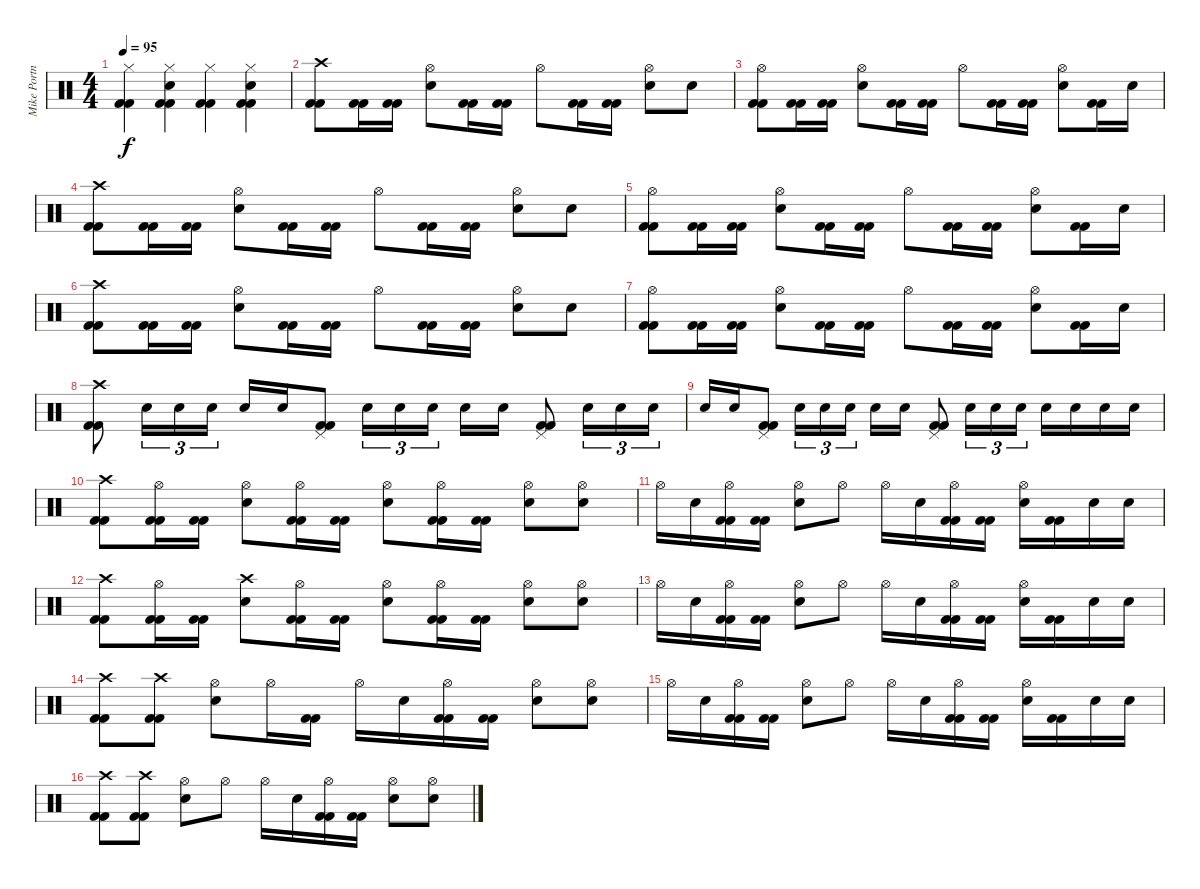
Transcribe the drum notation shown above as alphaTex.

\track ("Mike Portnoy" "Mike Portn") {instrument percussion}
\staff {score}
\articulation defaults
\ts (4 4)
\tempo 95
\clef neutral
\ks c
("Hi-Hat (closed)" "Kick (hit) 2" "Kick (hit) 2").4{dy f} ("Hi-Hat (closed)" "Snare (hit) 2" "Kick (hit) 2" "Kick (hit) 2").4 ("Hi-Hat (closed)" "Kick (hit) 2" "Kick (hit) 2").4 ("Hi-Hat (closed)" "Snare (hit) 2" "Kick (hit) 2" "Kick (hit) 2").4 |
("Crash high (hit)" "Kick (hit) 2" "Kick (hit) 2").8 ("Kick (hit) 2" "Kick (hit) 2").16 ("Kick (hit) 2" "Kick (hit) 2").16 ("Hi-Hat (open)" "Snare (hit) 2").8 ("Kick (hit) 2" "Kick (hit) 2").16 ("Kick (hit) 2" "Kick (hit) 2").16 "Hi-Hat (open)".8 ("Kick (hit) 2" "Kick (hit) 2").16 ("Kick (hit) 2" "Kick (hit) 2").16 ("Hi-Hat (open)" "Snare (hit) 2").8 "Snare (hit) 2".8 |
("Hi-Hat (open)" "Kick (hit) 2" "Kick (hit) 2").8 ("Kick (hit) 2" "Kick (hit) 2").16 ("Kick (hit) 2" "Kick (hit) 2").16 ("Hi-Hat (open)" "Snare (hit) 2").8 ("Kick (hit) 2" "Kick (hit) 2").16 ("Kick (hit) 2" "Kick (hit) 2").16 "Hi-Hat (open)".8 ("Kick (hit) 2" "Kick (hit) 2").16 ("Kick (hit) 2" "Kick (hit) 2").16 ("Hi-Hat (open)" "Snare (hit) 2").8 ("Kick (hit) 2" "Kick (hit) 2").16 "Snare (hit) 2".16 |
("Crash high (hit)" "Kick (hit) 2" "Kick (hit) 2").8 ("Kick (hit) 2" "Kick (hit) 2").16 ("Kick (hit) 2" "Kick (hit) 2").16 ("Hi-Hat (open)" "Snare (hit) 2").8 ("Kick (hit) 2" "Kick (hit) 2").16 ("Kick (hit) 2" "Kick (hit) 2").16 "Hi-Hat (open)".8 ("Kick (hit) 2" "Kick (hit) 2").16 ("Kick (hit) 2" "Kick (hit) 2").16 ("Hi-Hat (open)" "Snare (hit) 2").8 "Snare (hit) 2".8 |
("Hi-Hat (open)" "Kick (hit) 2" "Kick (hit) 2").8 ("Kick (hit) 2" "Kick (hit) 2").16 ("Kick (hit) 2" "Kick (hit) 2").16 ("Hi-Hat (open)" "Snare (hit) 2").8 ("Kick (hit) 2" "Kick (hit) 2").16 ("Kick (hit) 2" "Kick (hit) 2").16 "Hi-Hat (open)".8 ("Kick (hit) 2" "Kick (hit) 2").16 ("Kick (hit) 2" "Kick (hit) 2").16 ("Hi-Hat (open)" "Snare (hit) 2").8 ("Kick (hit) 2" "Kick (hit) 2").16 "Snare (hit) 2".16 |
("Crash high (hit)" "Kick (hit) 2" "Kick (hit) 2").8 ("Kick (hit) 2" "Kick (hit) 2").16 ("Kick (hit) 2" "Kick (hit) 2").16 ("Hi-Hat (open)" "Snare (hit) 2").8 ("Kick (hit) 2" "Kick (hit) 2").16 ("Kick (hit) 2" "Kick (hit) 2").16 "Hi-Hat (open)".8 ("Kick (hit) 2" "Kick (hit) 2").16 ("Kick (hit) 2" "Kick (hit) 2").16 ("Hi-Hat (open)" "Snare (hit) 2").8 "Snare (hit) 2".8 |
("Hi-Hat (open)" "Kick (hit) 2" "Kick (hit) 2").8 ("Kick (hit) 2" "Kick (hit) 2").16 ("Kick (hit) 2" "Kick (hit) 2").16 ("Hi-Hat (open)" "Snare (hit) 2").8 ("Kick (hit) 2" "Kick (hit) 2").16 ("Kick (hit) 2" "Kick (hit) 2").16 "Hi-Hat (open)".8 ("Kick (hit) 2" "Kick (hit) 2").16 ("Kick (hit) 2" "Kick (hit) 2").16 ("Hi-Hat (open)" "Snare (hit) 2").8 ("Kick (hit) 2" "Kick (hit) 2").16 "Snare (hit) 2".16 |
("Crash high (hit)" "Kick (hit) 2" "Kick (hit) 2").8 "Snare (hit) 2".16{tu (3 2)} "Snare (hit) 2".16{tu (3 2)} "Snare (hit) 2".16{tu (3 2)} "Snare (hit) 2".16 "Snare (hit) 2".16 ("Pedal Hi-Hat (hit)" "Kick (hit) 2" "Kick (hit) 2").8 "Snare (hit) 2".16{tu (3 2)} "Snare (hit) 2".16{tu (3 2)} "Snare (hit) 2".16{tu (3 2)} "Snare (hit) 2".16 "Snare (hit) 2".16 ("Pedal Hi-Hat (hit)" "Kick (hit) 2" "Kick (hit) 2").8 "Snare (hit) 2".16{tu (3 2)} "Snare (hit) 2".16{tu (3 2)} "Snare (hit) 2".16{tu (3 2)} |
"Snare (hit) 2".16 "Snare (hit) 2".16 ("Pedal Hi-Hat (hit)" "Kick (hit) 2" "Kick (hit) 2").8 "Snare (hit) 2".16{tu (3 2)} "Snare (hit) 2".16{tu (3 2)} "Snare (hit) 2".16{tu (3 2)} "Snare (hit) 2".16 "Snare (hit) 2".16 ("Pedal Hi-Hat (hit)" "Kick (hit) 2" "Kick (hit) 2").8 "Snare (hit) 2".16{tu (3 2)} "Snare (hit) 2".16{tu (3 2)} "Snare (hit) 2".16{tu (3 2)} "Snare (hit) 2".16 "Snare (hit) 2".16 "Snare (hit) 2".16 "Snare (hit) 2".16 |
("Crash high (hit)" "Kick (hit) 2" "Kick (hit) 2").8 ("Hi-Hat (open)" "Kick (hit) 2" "Kick (hit) 2").16 ("Kick (hit) 2" "Kick (hit) 2").16 ("Hi-Hat (open)" "Snare (hit) 2").8 ("Hi-Hat (open)" "Kick (hit) 2" "Kick (hit) 2").16 ("Kick (hit) 2" "Kick (hit) 2").16 ("Hi-Hat (open)" "Snare (hit) 2").8 ("Hi-Hat (open)" "Kick (hit) 2" "Kick (hit) 2").16 ("Kick (hit) 2" "Kick (hit) 2").16 ("Hi-Hat (open)" "Snare (hit) 2").8 ("Hi-Hat (open)" "Snare (hit) 2").8 |
"Hi-Hat (open)".16 "Snare (hit) 2".16 ("Hi-Hat (open)" "Kick (hit) 2" "Kick (hit) 2").16 ("Kick (hit) 2" "Kick (hit) 2").16 ("Hi-Hat (open)" "Snare (hit) 2").8 "Hi-Hat (open)".8 "Hi-Hat (open)".16 "Snare (hit) 2".16 ("Hi-Hat (open)" "Kick (hit) 2" "Kick (hit) 2").16 ("Kick (hit) 2" "Kick (hit) 2").16 ("Hi-Hat (open)" "Snare (hit) 2").16 ("Kick (hit) 2" "Kick (hit) 2").16 "Snare (hit) 2".16 "Snare (hit) 2".16 |
("Crash high (hit)" "Kick (hit) 2" "Kick (hit) 2").8 ("Hi-Hat (open)" "Kick (hit) 2" "Kick (hit) 2").16 ("Kick (hit) 2" "Kick (hit) 2").16 ("Crash high (hit)" "Snare (hit) 2").8 ("Hi-Hat (open)" "Kick (hit) 2" "Kick (hit) 2").16 ("Kick (hit) 2" "Kick (hit) 2").16 ("Hi-Hat (open)" "Snare (hit) 2").8 ("Hi-Hat (open)" "Kick (hit) 2" "Kick (hit) 2").16 ("Kick (hit) 2" "Kick (hit) 2").16 ("Hi-Hat (open)" "Snare (hit) 2").8 ("Hi-Hat (open)" "Snare (hit) 2").8 |
"Hi-Hat (open)".16 "Snare (hit) 2".16 ("Hi-Hat (open)" "Kick (hit) 2" "Kick (hit) 2").16 ("Kick (hit) 2" "Kick (hit) 2").16 ("Hi-Hat (open)" "Snare (hit) 2").8 "Hi-Hat (open)".8 "Hi-Hat (open)".16 "Snare (hit) 2".16 ("Hi-Hat (open)" "Kick (hit) 2" "Kick (hit) 2").16 ("Kick (hit) 2" "Kick (hit) 2").16 ("Hi-Hat (open)" "Snare (hit) 2").16 ("Kick (hit) 2" "Kick (hit) 2").16 "Snare (hit) 2".16 "Snare (hit) 2".16 |
("Crash high (hit)" "Kick (hit) 2" "Kick (hit) 2").8 ("Crash high (hit)" "Kick (hit) 2" "Kick (hit) 2").8 ("Hi-Hat (open)" "Snare (hit) 2").8 "Hi-Hat (open)".16 ("Kick (hit) 2" "Kick (hit) 2").16 "Hi-Hat (open)".16 "Snare (hit) 2".16 ("Hi-Hat (open)" "Kick (hit) 2" "Kick (hit) 2").16 ("Kick (hit) 2" "Kick (hit) 2").16 ("Hi-Hat (open)" "Snare (hit) 2").8 ("Hi-Hat (open)" "Snare (hit) 2").8 |
"Hi-Hat (open)".16 "Snare (hit) 2".16 ("Hi-Hat (open)" "Kick (hit) 2" "Kick (hit) 2").16 ("Kick (hit) 2" "Kick (hit) 2").16 ("Hi-Hat (open)" "Snare (hit) 2").8 "Hi-Hat (open)".8 "Hi-Hat (open)".16 "Snare (hit) 2".16 ("Hi-Hat (open)" "Kick (hit) 2" "Kick (hit) 2").16 ("Kick (hit) 2" "Kick (hit) 2").16 ("Hi-Hat (open)" "Snare (hit) 2").16 ("Kick (hit) 2" "Kick (hit) 2").16 "Snare (hit) 2".16 "Snare (hit) 2".16 |
("Crash high (hit)" "Kick (hit) 2" "Kick (hit) 2").8 ("Crash high (hit)" "Kick (hit) 2" "Kick (hit) 2").8 ("Hi-Hat (open)" "Snare (hit) 2").8 "Hi-Hat (open)".8 "Hi-Hat (open)".16 "Snare (hit) 2".16 ("Hi-Hat (open)" "Kick (hit) 2" "Kick (hit) 2").16 ("Kick (hit) 2" "Kick (hit) 2").16 ("Hi-Hat (open)" "Snare (hit) 2").8 ("Hi-Hat (open)" "Snare (hit) 2").8
